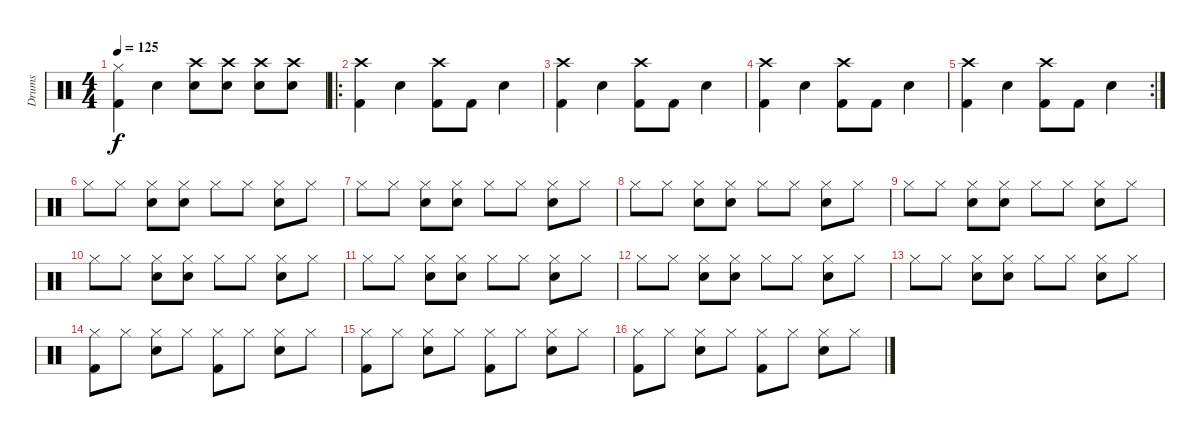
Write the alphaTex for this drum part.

\track ("Drums" "Drums") {instrument percussion}
\staff {score}
\articulation defaults
\ts (4 4)
\tempo 125
\clef neutral
\ks c
("Hi-Hat (closed)" "Kick (hit) 2").4{dy f} "Snare (hit) 2".4 ("Snare (hit) 2" "Crash high (hit)").8 ("Snare (hit) 2" "Crash high (hit)").8 ("Snare (hit) 2" "Crash high (hit)").8 ("Snare (hit) 2" "Crash high (hit)").8 |
\ro
("Crash high (hit)" "Kick (hit) 2").4 "Snare (hit) 2".4 ("Crash high (hit)" "Kick (hit) 2").8 "Kick (hit) 2".8 "Snare (hit) 2".4 |
("Crash high (hit)" "Kick (hit) 2").4 "Snare (hit) 2".4 ("Crash high (hit)" "Kick (hit) 2").8 "Kick (hit) 2".8 "Snare (hit) 2".4 |
("Crash high (hit)" "Kick (hit) 2").4 "Snare (hit) 2".4 ("Crash high (hit)" "Kick (hit) 2").8 "Kick (hit) 2".8 "Snare (hit) 2".4 |
\rc 2
("Crash high (hit)" "Kick (hit) 2").4 "Snare (hit) 2".4 ("Crash high (hit)" "Kick (hit) 2").8 "Kick (hit) 2".8 "Snare (hit) 2".4 |
"Hi-Hat (closed)".8 "Hi-Hat (closed)".8 ("Snare (hit) 2" "Hi-Hat (closed)").8 ("Snare (hit) 2" "Hi-Hat (closed)").8 "Hi-Hat (closed)".8 "Hi-Hat (closed)".8 ("Snare (hit) 2" "Hi-Hat (closed)").8 "Hi-Hat (closed)".8 |
"Hi-Hat (closed)".8 "Hi-Hat (closed)".8 ("Snare (hit) 2" "Hi-Hat (closed)").8 ("Snare (hit) 2" "Hi-Hat (closed)").8 "Hi-Hat (closed)".8 "Hi-Hat (closed)".8 ("Snare (hit) 2" "Hi-Hat (closed)").8 "Hi-Hat (closed)".8 |
"Hi-Hat (closed)".8 "Hi-Hat (closed)".8 ("Snare (hit) 2" "Hi-Hat (closed)").8 ("Snare (hit) 2" "Hi-Hat (closed)").8 "Hi-Hat (closed)".8 "Hi-Hat (closed)".8 ("Snare (hit) 2" "Hi-Hat (closed)").8 "Hi-Hat (closed)".8 |
"Hi-Hat (closed)".8 "Hi-Hat (closed)".8 ("Snare (hit) 2" "Hi-Hat (closed)").8 ("Snare (hit) 2" "Hi-Hat (closed)").8 "Hi-Hat (closed)".8 "Hi-Hat (closed)".8 ("Snare (hit) 2" "Hi-Hat (closed)").8 "Hi-Hat (closed)".8 |
"Hi-Hat (closed)".8 "Hi-Hat (closed)".8 ("Snare (hit) 2" "Hi-Hat (closed)").8 ("Snare (hit) 2" "Hi-Hat (closed)").8 "Hi-Hat (closed)".8 "Hi-Hat (closed)".8 ("Snare (hit) 2" "Hi-Hat (closed)").8 "Hi-Hat (closed)".8 |
"Hi-Hat (closed)".8 "Hi-Hat (closed)".8 ("Snare (hit) 2" "Hi-Hat (closed)").8 ("Snare (hit) 2" "Hi-Hat (closed)").8 "Hi-Hat (closed)".8 "Hi-Hat (closed)".8 ("Snare (hit) 2" "Hi-Hat (closed)").8 "Hi-Hat (closed)".8 |
"Hi-Hat (closed)".8 "Hi-Hat (closed)".8 ("Snare (hit) 2" "Hi-Hat (closed)").8 ("Snare (hit) 2" "Hi-Hat (closed)").8 "Hi-Hat (closed)".8 "Hi-Hat (closed)".8 ("Snare (hit) 2" "Hi-Hat (closed)").8 "Hi-Hat (closed)".8 |
"Hi-Hat (closed)".8 "Hi-Hat (closed)".8 ("Snare (hit) 2" "Hi-Hat (closed)").8 ("Snare (hit) 2" "Hi-Hat (closed)").8 "Hi-Hat (closed)".8 "Hi-Hat (closed)".8 ("Snare (hit) 2" "Hi-Hat (closed)").8 "Hi-Hat (closed)".8 |
("Hi-Hat (closed)" "Kick (hit) 2").8 "Hi-Hat (closed)".8 ("Hi-Hat (closed)" "Snare (hit) 2").8 "Hi-Hat (closed)".8 ("Hi-Hat (closed)" "Kick (hit) 2").8 "Hi-Hat (closed)".8 ("Hi-Hat (closed)" "Snare (hit) 2").8 "Hi-Hat (closed)".8 |
("Hi-Hat (closed)" "Kick (hit) 2").8 "Hi-Hat (closed)".8 ("Hi-Hat (closed)" "Snare (hit) 2").8 "Hi-Hat (closed)".8 ("Hi-Hat (closed)" "Kick (hit) 2").8 "Hi-Hat (closed)".8 ("Hi-Hat (closed)" "Snare (hit) 2").8 "Hi-Hat (closed)".8 |
("Hi-Hat (closed)" "Kick (hit) 2").8 "Hi-Hat (closed)".8 ("Hi-Hat (closed)" "Snare (hit) 2").8 "Hi-Hat (closed)".8 ("Hi-Hat (closed)" "Kick (hit) 2").8 "Hi-Hat (closed)".8 ("Hi-Hat (closed)" "Snare (hit) 2").8 "Hi-Hat (closed)".8
